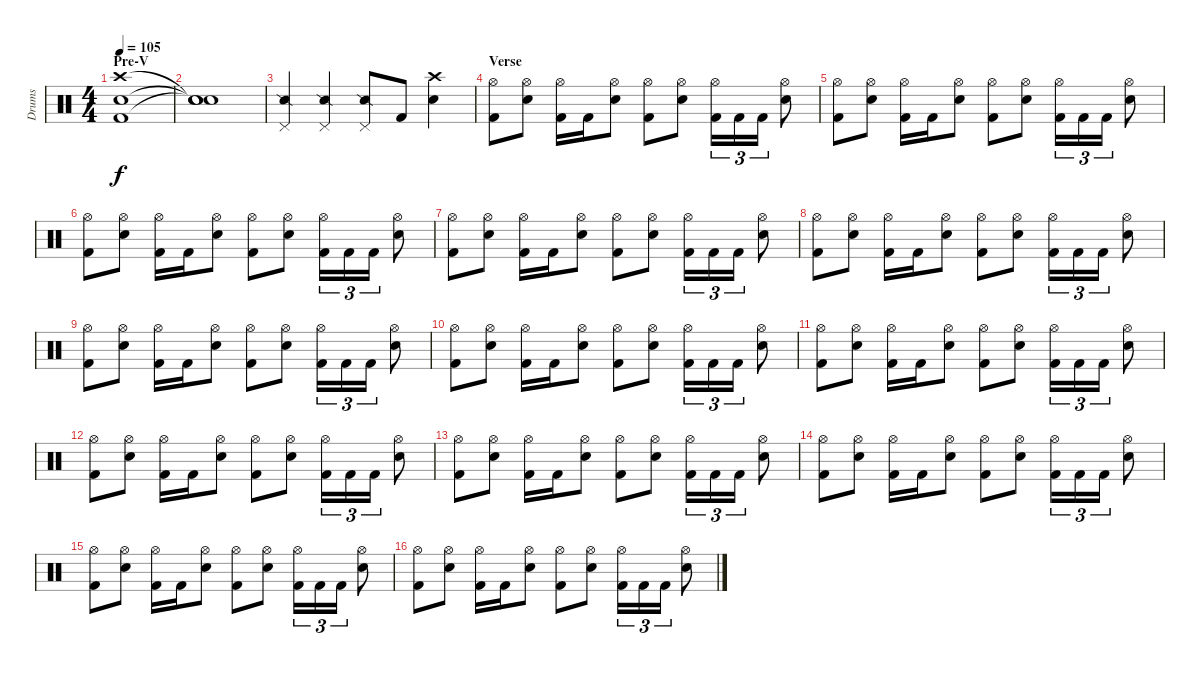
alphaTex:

\track ("Drums" "Drums") {instrument percussion}
\staff {score}
\articulation defaults
\ts (4 4)
\section ("" "Pre-V")
\tempo 105
\clef neutral
\ks c
("Crash high (hit)" "Electric Snare (hit)" "Kick (hit) 2").1{dy f} |
("Snare (hit)"{t} "Snare (hit)"{t} "Snare (hit)"{t}).1 |
("Snare (side stick) 2" "Pedal Hi-Hat (hit)").4 ("Snare (side stick) 2" "Pedal Hi-Hat (hit)").4 ("Snare (side stick) 2" "Pedal Hi-Hat (hit)").8 "Kick (hit) 2".8 ("Crash high (hit)" "Electric Snare (hit)").4 |
\section ("" "Verse")
("Hi-Hat (open)" "Kick (hit) 2").8 ("Hi-Hat (open)" "Electric Snare (hit)").8 ("Hi-Hat (open)" "Kick (hit) 2").16 "Kick (hit) 2".16 ("Hi-Hat (open)" "Electric Snare (hit)").8 ("Hi-Hat (open)" "Kick (hit) 2").8 ("Hi-Hat (open)" "Electric Snare (hit)").8 ("Hi-Hat (open)" "Kick (hit) 2").16{tu (3 2)} "Kick (hit) 2".16{tu (3 2)} "Kick (hit) 2".16{tu (3 2)} ("Hi-Hat (open)" "Electric Snare (hit)").8 |
("Hi-Hat (open)" "Kick (hit) 2").8 ("Hi-Hat (open)" "Electric Snare (hit)").8 ("Hi-Hat (open)" "Kick (hit) 2").16 "Kick (hit) 2".16 ("Hi-Hat (open)" "Electric Snare (hit)").8 ("Hi-Hat (open)" "Kick (hit) 2").8 ("Hi-Hat (open)" "Electric Snare (hit)").8 ("Hi-Hat (open)" "Kick (hit) 2").16{tu (3 2)} "Kick (hit) 2".16{tu (3 2)} "Kick (hit) 2".16{tu (3 2)} ("Hi-Hat (open)" "Electric Snare (hit)").8 |
("Hi-Hat (open)" "Kick (hit) 2").8 ("Hi-Hat (open)" "Electric Snare (hit)").8 ("Hi-Hat (open)" "Kick (hit) 2").16 "Kick (hit) 2".16 ("Hi-Hat (open)" "Electric Snare (hit)").8 ("Hi-Hat (open)" "Kick (hit) 2").8 ("Hi-Hat (open)" "Electric Snare (hit)").8 ("Hi-Hat (open)" "Kick (hit) 2").16{tu (3 2)} "Kick (hit) 2".16{tu (3 2)} "Kick (hit) 2".16{tu (3 2)} ("Hi-Hat (open)" "Electric Snare (hit)").8 |
("Hi-Hat (open)" "Kick (hit) 2").8 ("Hi-Hat (open)" "Electric Snare (hit)").8 ("Hi-Hat (open)" "Kick (hit) 2").16 "Kick (hit) 2".16 ("Hi-Hat (open)" "Electric Snare (hit)").8 ("Hi-Hat (open)" "Kick (hit) 2").8 ("Hi-Hat (open)" "Electric Snare (hit)").8 ("Hi-Hat (open)" "Kick (hit) 2").16{tu (3 2)} "Kick (hit) 2".16{tu (3 2)} "Kick (hit) 2".16{tu (3 2)} ("Hi-Hat (open)" "Electric Snare (hit)").8 |
("Hi-Hat (open)" "Kick (hit) 2").8 ("Hi-Hat (open)" "Electric Snare (hit)").8 ("Hi-Hat (open)" "Kick (hit) 2").16 "Kick (hit) 2".16 ("Hi-Hat (open)" "Electric Snare (hit)").8 ("Hi-Hat (open)" "Kick (hit) 2").8 ("Hi-Hat (open)" "Electric Snare (hit)").8 ("Hi-Hat (open)" "Kick (hit) 2").16{tu (3 2)} "Kick (hit) 2".16{tu (3 2)} "Kick (hit) 2".16{tu (3 2)} ("Hi-Hat (open)" "Electric Snare (hit)").8 |
("Hi-Hat (open)" "Kick (hit) 2").8 ("Hi-Hat (open)" "Electric Snare (hit)").8 ("Hi-Hat (open)" "Kick (hit) 2").16 "Kick (hit) 2".16 ("Hi-Hat (open)" "Electric Snare (hit)").8 ("Hi-Hat (open)" "Kick (hit) 2").8 ("Hi-Hat (open)" "Electric Snare (hit)").8 ("Hi-Hat (open)" "Kick (hit) 2").16{tu (3 2)} "Kick (hit) 2".16{tu (3 2)} "Kick (hit) 2".16{tu (3 2)} ("Hi-Hat (open)" "Electric Snare (hit)").8 |
("Hi-Hat (open)" "Kick (hit) 2").8 ("Hi-Hat (open)" "Electric Snare (hit)").8 ("Hi-Hat (open)" "Kick (hit) 2").16 "Kick (hit) 2".16 ("Hi-Hat (open)" "Electric Snare (hit)").8 ("Hi-Hat (open)" "Kick (hit) 2").8 ("Hi-Hat (open)" "Electric Snare (hit)").8 ("Hi-Hat (open)" "Kick (hit) 2").16{tu (3 2)} "Kick (hit) 2".16{tu (3 2)} "Kick (hit) 2".16{tu (3 2)} ("Hi-Hat (open)" "Electric Snare (hit)").8 |
("Hi-Hat (open)" "Kick (hit) 2").8 ("Hi-Hat (open)" "Electric Snare (hit)").8 ("Hi-Hat (open)" "Kick (hit) 2").16 "Kick (hit) 2".16 ("Hi-Hat (open)" "Electric Snare (hit)").8 ("Hi-Hat (open)" "Kick (hit) 2").8 ("Hi-Hat (open)" "Electric Snare (hit)").8 ("Hi-Hat (open)" "Kick (hit) 2").16{tu (3 2)} "Kick (hit) 2".16{tu (3 2)} "Kick (hit) 2".16{tu (3 2)} ("Hi-Hat (open)" "Electric Snare (hit)").8 |
("Hi-Hat (open)" "Kick (hit) 2").8 ("Hi-Hat (open)" "Electric Snare (hit)").8 ("Hi-Hat (open)" "Kick (hit) 2").16 "Kick (hit) 2".16 ("Hi-Hat (open)" "Electric Snare (hit)").8 ("Hi-Hat (open)" "Kick (hit) 2").8 ("Hi-Hat (open)" "Electric Snare (hit)").8 ("Hi-Hat (open)" "Kick (hit) 2").16{tu (3 2)} "Kick (hit) 2".16{tu (3 2)} "Kick (hit) 2".16{tu (3 2)} ("Hi-Hat (open)" "Electric Snare (hit)").8 |
("Hi-Hat (open)" "Kick (hit) 2").8 ("Hi-Hat (open)" "Electric Snare (hit)").8 ("Hi-Hat (open)" "Kick (hit) 2").16 "Kick (hit) 2".16 ("Hi-Hat (open)" "Electric Snare (hit)").8 ("Hi-Hat (open)" "Kick (hit) 2").8 ("Hi-Hat (open)" "Electric Snare (hit)").8 ("Hi-Hat (open)" "Kick (hit) 2").16{tu (3 2)} "Kick (hit) 2".16{tu (3 2)} "Kick (hit) 2".16{tu (3 2)} ("Hi-Hat (open)" "Electric Snare (hit)").8 |
("Hi-Hat (open)" "Kick (hit) 2").8 ("Hi-Hat (open)" "Electric Snare (hit)").8 ("Hi-Hat (open)" "Kick (hit) 2").16 "Kick (hit) 2".16 ("Hi-Hat (open)" "Electric Snare (hit)").8 ("Hi-Hat (open)" "Kick (hit) 2").8 ("Hi-Hat (open)" "Electric Snare (hit)").8 ("Hi-Hat (open)" "Kick (hit) 2").16{tu (3 2)} "Kick (hit) 2".16{tu (3 2)} "Kick (hit) 2".16{tu (3 2)} ("Hi-Hat (open)" "Electric Snare (hit)").8 |
("Hi-Hat (open)" "Kick (hit) 2").8 ("Hi-Hat (open)" "Electric Snare (hit)").8 ("Hi-Hat (open)" "Kick (hit) 2").16 "Kick (hit) 2".16 ("Hi-Hat (open)" "Electric Snare (hit)").8 ("Hi-Hat (open)" "Kick (hit) 2").8 ("Hi-Hat (open)" "Electric Snare (hit)").8 ("Hi-Hat (open)" "Kick (hit) 2").16{tu (3 2)} "Kick (hit) 2".16{tu (3 2)} "Kick (hit) 2".16{tu (3 2)} ("Hi-Hat (open)" "Electric Snare (hit)").8 |
("Hi-Hat (open)" "Kick (hit) 2").8 ("Hi-Hat (open)" "Electric Snare (hit)").8 ("Hi-Hat (open)" "Kick (hit) 2").16 "Kick (hit) 2".16 ("Hi-Hat (open)" "Electric Snare (hit)").8 ("Hi-Hat (open)" "Kick (hit) 2").8 ("Hi-Hat (open)" "Electric Snare (hit)").8 ("Hi-Hat (open)" "Kick (hit) 2").16{tu (3 2)} "Kick (hit) 2".16{tu (3 2)} "Kick (hit) 2".16{tu (3 2)} ("Hi-Hat (open)" "Electric Snare (hit)").8
